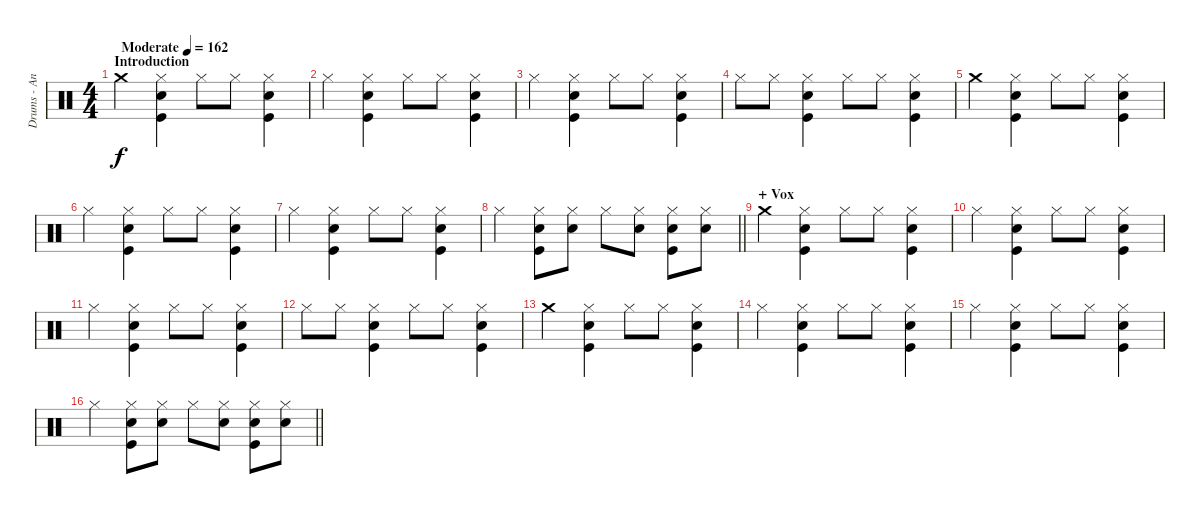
\track ("Drums - Andriushkin" "Drums - An") {instrument percussion}
\staff {score}
\articulation defaults
\ts (4 4)
\section ("" "Introduction")
\tempo (162 "Moderate")
\clef neutral
\ks c "Crash medium (hit)".4{dy f}
("Hi-Hat (closed)" "Electric Snare (hit)" "Kick (hit)").4 "Hi-Hat (closed)".8 "Hi-Hat (closed)".8 ("Hi-Hat (closed)" "Electric Snare (hit)" "Kick (hit)").4 |
"Hi-Hat (closed)".4 ("Hi-Hat (closed)" "Electric Snare (hit)" "Kick (hit)").4 "Hi-Hat (closed)".8 "Hi-Hat (closed)".8 ("Hi-Hat (closed)" "Electric Snare (hit)" "Kick (hit)").4 |
"Hi-Hat (closed)".4 ("Hi-Hat (closed)" "Electric Snare (hit)" "Kick (hit)").4 "Hi-Hat (closed)".8 "Hi-Hat (closed)".8 ("Hi-Hat (closed)" "Electric Snare (hit)" "Kick (hit)").4 |
"Hi-Hat (closed)".8 "Hi-Hat (closed)".8 ("Hi-Hat (closed)" "Electric Snare (hit)" "Kick (hit)").4 "Hi-Hat (closed)".8 "Hi-Hat (closed)".8 ("Hi-Hat (closed)" "Electric Snare (hit)" "Kick (hit)").4 |
"Crash medium (hit)".4 ("Hi-Hat (closed)" "Electric Snare (hit)" "Kick (hit)").4 "Hi-Hat (closed)".8 "Hi-Hat (closed)".8 ("Hi-Hat (closed)" "Electric Snare (hit)" "Kick (hit)").4 |
"Hi-Hat (closed)".4 ("Hi-Hat (closed)" "Electric Snare (hit)" "Kick (hit)").4 "Hi-Hat (closed)".8 "Hi-Hat (closed)".8 ("Hi-Hat (closed)" "Electric Snare (hit)" "Kick (hit)").4 |
"Hi-Hat (closed)".4 ("Hi-Hat (closed)" "Electric Snare (hit)" "Kick (hit)").4 "Hi-Hat (closed)".8 "Hi-Hat (closed)".8 ("Hi-Hat (closed)" "Electric Snare (hit)" "Kick (hit)").4 |
\barLineRight lightlight "Hi-Hat (closed)".4
("Hi-Hat (closed)" "Electric Snare (hit)" "Kick (hit)").8 ("Hi-Hat (closed)" "Electric Snare (hit)").8 "Hi-Hat (closed)".8 ("Hi-Hat (closed)" "Electric Snare (hit)").8 ("Hi-Hat (closed)" "Electric Snare (hit)" "Kick (hit)").8 ("Hi-Hat (closed)" "Electric Snare (hit)").8 |
\section ("" "+ Vox")
"Crash medium (hit)".4 ("Hi-Hat (closed)" "Electric Snare (hit)" "Kick (hit)").4 "Hi-Hat (closed)".8 "Hi-Hat (closed)".8 ("Hi-Hat (closed)" "Electric Snare (hit)" "Kick (hit)").4 |
"Hi-Hat (closed)".4 ("Hi-Hat (closed)" "Electric Snare (hit)" "Kick (hit)").4 "Hi-Hat (closed)".8 "Hi-Hat (closed)".8 ("Hi-Hat (closed)" "Electric Snare (hit)" "Kick (hit)").4 |
"Hi-Hat (closed)".4 ("Hi-Hat (closed)" "Electric Snare (hit)" "Kick (hit)").4 "Hi-Hat (closed)".8 "Hi-Hat (closed)".8 ("Hi-Hat (closed)" "Electric Snare (hit)" "Kick (hit)").4 |
"Hi-Hat (closed)".8 "Hi-Hat (closed)".8 ("Hi-Hat (closed)" "Electric Snare (hit)" "Kick (hit)").4 "Hi-Hat (closed)".8 "Hi-Hat (closed)".8 ("Hi-Hat (closed)" "Electric Snare (hit)" "Kick (hit)").4 |
"Crash medium (hit)".4 ("Hi-Hat (closed)" "Electric Snare (hit)" "Kick (hit)").4 "Hi-Hat (closed)".8 "Hi-Hat (closed)".8 ("Hi-Hat (closed)" "Electric Snare (hit)" "Kick (hit)").4 |
"Hi-Hat (closed)".4 ("Hi-Hat (closed)" "Electric Snare (hit)" "Kick (hit)").4 "Hi-Hat (closed)".8 "Hi-Hat (closed)".8 ("Hi-Hat (closed)" "Electric Snare (hit)" "Kick (hit)").4 |
"Hi-Hat (closed)".4 ("Hi-Hat (closed)" "Electric Snare (hit)" "Kick (hit)").4 "Hi-Hat (closed)".8 "Hi-Hat (closed)".8 ("Hi-Hat (closed)" "Electric Snare (hit)" "Kick (hit)").4 |
\barLineRight lightlight "Hi-Hat (closed)".4
("Hi-Hat (closed)" "Electric Snare (hit)" "Kick (hit)").8 ("Hi-Hat (closed)" "Electric Snare (hit)").8 "Hi-Hat (closed)".8 ("Hi-Hat (closed)" "Electric Snare (hit)").8 ("Hi-Hat (closed)" "Electric Snare (hit)" "Kick (hit)").8 ("Hi-Hat (closed)" "Electric Snare (hit)").8
